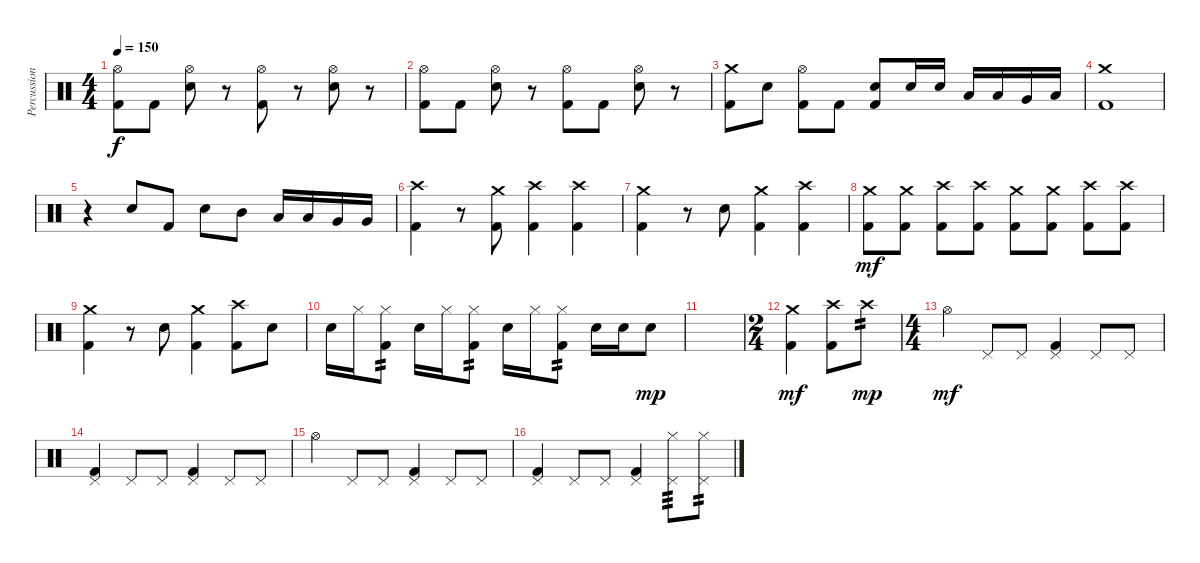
\track ("Percussion" "Percussion") {instrument percussion}
\staff {score}
\articulation defaults
\ts (4 4)
\tempo 150
\clef neutral
\ks c
("Hi-Hat (open)" "Kick (hit) 2").8{dy f} "Kick (hit) 2".8 ("Hi-Hat (open)" "Electric Snare (hit)").8 r.8 ("Hi-Hat (open)" "Kick (hit) 2").8 r.8 ("Hi-Hat (open)" "Electric Snare (hit)").8 r.8 |
("Hi-Hat (open)" "Kick (hit) 2").8 "Kick (hit) 2".8 ("Hi-Hat (open)" "Electric Snare (hit)").8 r.8 ("Hi-Hat (open)" "Kick (hit) 2").8 "Kick (hit) 2".8 ("Hi-Hat (open)" "Electric Snare (hit)").8 r.8 |
("Crash medium (hit)" "Kick (hit) 2").8 "Electric Snare (hit)".8 ("Hi-Hat (open)" "Kick (hit) 2").8 "Kick (hit) 2".8 ("Electric Snare (hit)" "Kick (hit) 2").8 "Electric Snare (hit)".16 "Electric Snare (hit)".16 "Low Tom (hit)".16 "Low Tom (hit)".16 "Very Low Tom (hit)".16 "Low Floor Tom (hit)".16 |
("Crash medium (hit)" "Kick (hit) 2").1 |
r.4 "Electric Snare (hit)".8 "Kick (hit) 2".8 "Electric Snare (hit)".8 "Mid Tom (hit)".8 "Low Tom (hit)".16 "Low Tom (hit)".16 "Very Low Tom (hit)".16 "Very Low Tom (hit)".16 |
("Crash high (hit)" "Kick (hit) 2").4 r.8 ("Kick (hit) 2" "Crash medium (hit)").8 ("Kick (hit) 2" "Crash high (hit)").4 ("Kick (hit) 2" "Crash high (hit)").4 |
("Crash medium (hit)" "Kick (hit) 2").4 r.8 "Snare (hit) 2".8 ("Crash medium (hit)" "Kick (hit) 2").4 ("Crash high (hit)" "Kick (hit) 2").4 |
("Crash medium (hit)" "Kick (hit) 2").8{dy mf} ("Crash medium (hit)" "Kick (hit) 2").8 ("Crash high (hit)" "Kick (hit) 2").8 ("Crash high (hit)" "Kick (hit) 2").8 ("Crash medium (hit)" "Kick (hit) 2").8 ("Crash medium (hit)" "Kick (hit) 2").8 ("Crash high (hit)" "Kick (hit) 2").8 ("Crash high (hit)" "Kick (hit) 2").8 |
("Crash medium (hit)" "Kick (hit) 2").4 r.8 "Snare (hit) 2".8 ("Crash medium (hit)" "Kick (hit) 2").4 ("Crash high (hit)" "Kick (hit) 2").8 "Snare (hit) 2".8 |
"Snare (hit) 2".16 "Hi-Hat (closed)".16 ("Kick (hit) 2" "Hi-Hat (closed)").8{tp 2} "Snare (hit) 2".16 "Hi-Hat (closed)".16 ("Kick (hit) 2" "Hi-Hat (closed)").8{tp 2} "Snare (hit) 2".16 "Hi-Hat (closed)".16 ("Kick (hit) 2" "Hi-Hat (closed)").8{tp 2} "Snare (hit) 2".16 "Snare (hit) 2".16 "Snare (hit) 2".8{dy mp} |
|
\ts (2 4)
("Crash medium (hit)" "Kick (hit) 2").4{dy mf} ("Crash high (hit)" "Kick (hit) 2").8 "Crash high (hit)".8{tp 2 dy mp} |
\ts (4 4)
"Hi-Hat (open)".4{dy mf} "Pedal Hi-Hat (hit)".8 "Pedal Hi-Hat (hit)".8 ("Pedal Hi-Hat (hit)" "Kick (hit) 2").4 "Pedal Hi-Hat (hit)".8 "Pedal Hi-Hat (hit)".8 |
("Pedal Hi-Hat (hit)" "Kick (hit) 2").4 "Pedal Hi-Hat (hit)".8 "Pedal Hi-Hat (hit)".8 ("Pedal Hi-Hat (hit)" "Kick (hit) 2").4 "Pedal Hi-Hat (hit)".8 "Pedal Hi-Hat (hit)".8 |
"Hi-Hat (open)".4 "Pedal Hi-Hat (hit)".8 "Pedal Hi-Hat (hit)".8 ("Pedal Hi-Hat (hit)" "Kick (hit) 2").4 "Pedal Hi-Hat (hit)".8 "Pedal Hi-Hat (hit)".8 |
("Pedal Hi-Hat (hit)" "Kick (hit) 2").4 "Pedal Hi-Hat (hit)".8 "Pedal Hi-Hat (hit)".8 ("Pedal Hi-Hat (hit)" "Kick (hit) 2").4 ("Pedal Hi-Hat (hit)" "Hi-Hat (closed)").8{tp 3} ("Pedal Hi-Hat (hit)" "Hi-Hat (closed)").8{tp 2}
